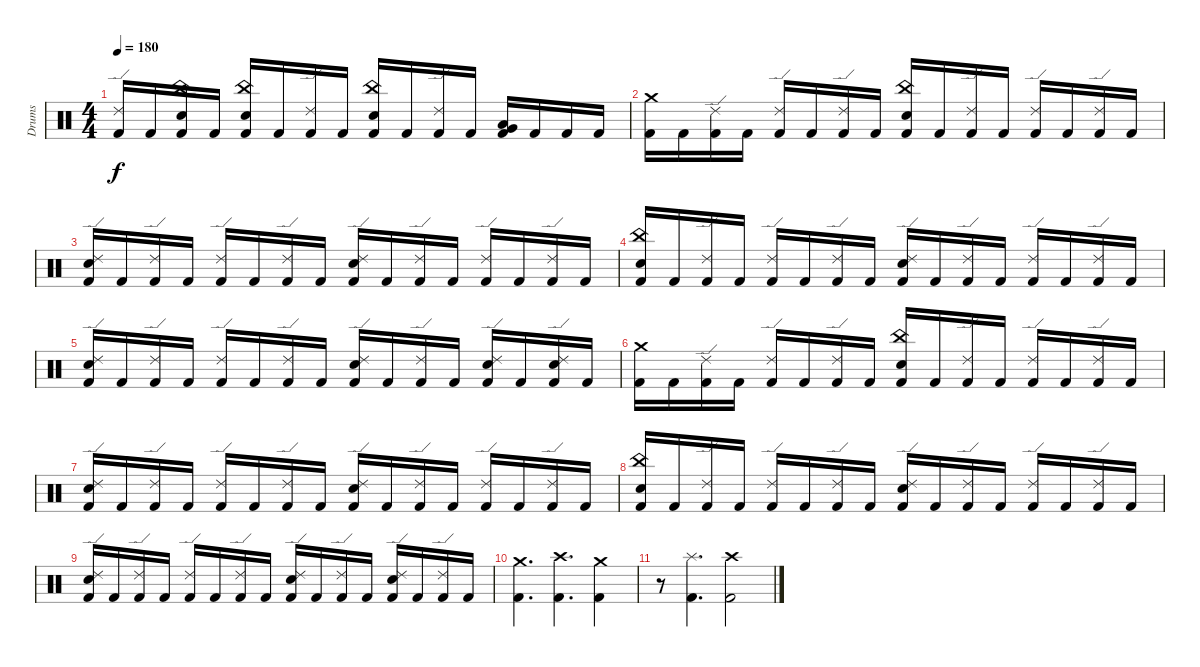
\track ("Drums" "Drums") {instrument percussion}
\staff {score}
\articulation defaults
\ts (4 4)
\tempo 180
\clef neutral
\ks c
("Ride (edge) 2" "Kick (hit) 2").16{dy f} "Kick (hit) 2".16 ("China (hit)" "Snare (hit) 2" "Kick (hit) 2").16 "Kick (hit) 2".16 ("China (hit)" "Snare (hit) 2" "Kick (hit) 2").16 "Kick (hit) 2".16 ("Ride (edge) 2" "Kick (hit) 2").16 "Kick (hit) 2".16 ("China (hit)" "Snare (hit) 2" "Kick (hit) 2").16 "Kick (hit) 2".16 ("Ride (edge) 2" "Kick (hit) 2").16 "Kick (hit) 2".16 ("Low Floor Tom (hit)" "Very Low Tom (hit)" "Kick (hit) 2").16 "Kick (hit) 2".16 "Kick (hit) 2".16 "Kick (hit) 2".16 |
("Crash medium (hit)" "Kick (hit) 2").16 "Kick (hit) 2".16 ("Ride (edge) 2" "Kick (hit) 2").16 "Kick (hit) 2".16 ("Ride (edge) 2" "Kick (hit) 2").16 "Kick (hit) 2".16 ("Ride (edge) 2" "Kick (hit) 2").16 "Kick (hit) 2".16 ("China (hit)" "Snare (hit) 2" "Kick (hit) 2").16 "Kick (hit) 2".16 ("Ride (edge) 2" "Kick (hit) 2").16 "Kick (hit) 2".16 ("Ride (edge) 2" "Kick (hit) 2").16 "Kick (hit) 2".16 ("Ride (edge) 2" "Kick (hit) 2").16 "Kick (hit) 2".16 |
("Ride (edge) 2" "Snare (hit) 2" "Kick (hit) 2").16 "Kick (hit) 2".16 ("Ride (edge) 2" "Kick (hit) 2").16 "Kick (hit) 2".16 ("Ride (edge) 2" "Kick (hit) 2").16 "Kick (hit) 2".16 ("Ride (edge) 2" "Kick (hit) 2").16 "Kick (hit) 2".16 ("Ride (edge) 2" "Snare (hit) 2" "Kick (hit) 2").16 "Kick (hit) 2".16 ("Ride (edge) 2" "Kick (hit) 2").16 "Kick (hit) 2".16 ("Ride (edge) 2" "Kick (hit) 2").16 "Kick (hit) 2".16 ("Ride (edge) 2" "Kick (hit) 2").16 "Kick (hit) 2".16 |
("China (hit)" "Snare (hit) 2" "Kick (hit) 2").16 "Kick (hit) 2".16 ("Ride (edge) 2" "Kick (hit) 2").16 "Kick (hit) 2".16 ("Ride (edge) 2" "Kick (hit) 2").16 "Kick (hit) 2".16 ("Ride (edge) 2" "Kick (hit) 2").16 "Kick (hit) 2".16 ("Ride (edge) 2" "Snare (hit) 2" "Kick (hit) 2").16 "Kick (hit) 2".16 ("Ride (edge) 2" "Kick (hit) 2").16 "Kick (hit) 2".16 ("Ride (edge) 2" "Kick (hit) 2").16 "Kick (hit) 2".16 ("Ride (edge) 2" "Kick (hit) 2").16 "Kick (hit) 2".16 |
("Ride (edge) 2" "Snare (hit) 2" "Kick (hit) 2").16 "Kick (hit) 2".16 ("Ride (edge) 2" "Kick (hit) 2").16 "Kick (hit) 2".16 ("Ride (edge) 2" "Kick (hit) 2").16 "Kick (hit) 2".16 ("Ride (edge) 2" "Kick (hit) 2").16 "Kick (hit) 2".16 ("Ride (edge) 2" "Snare (hit) 2" "Kick (hit) 2").16 "Kick (hit) 2".16 ("Ride (edge) 2" "Kick (hit) 2").16 "Kick (hit) 2".16 ("Ride (edge) 2" "Snare (hit) 2" "Kick (hit) 2").16 "Kick (hit) 2".16 ("Ride (edge) 2" "Snare (hit) 2" "Kick (hit) 2").16 "Kick (hit) 2".16 |
("Crash medium (hit)" "Kick (hit) 2").16 "Kick (hit) 2".16 ("Ride (edge) 2" "Kick (hit) 2").16 "Kick (hit) 2".16 ("Ride (edge) 2" "Kick (hit) 2").16 "Kick (hit) 2".16 ("Ride (edge) 2" "Kick (hit) 2").16 "Kick (hit) 2".16 ("China (hit)" "Snare (hit) 2" "Kick (hit) 2").16 "Kick (hit) 2".16 ("Ride (edge) 2" "Kick (hit) 2").16 "Kick (hit) 2".16 ("Ride (edge) 2" "Kick (hit) 2").16 "Kick (hit) 2".16 ("Ride (edge) 2" "Kick (hit) 2").16 "Kick (hit) 2".16 |
("Ride (edge) 2" "Snare (hit) 2" "Kick (hit) 2").16 "Kick (hit) 2".16 ("Ride (edge) 2" "Kick (hit) 2").16 "Kick (hit) 2".16 ("Ride (edge) 2" "Kick (hit) 2").16 "Kick (hit) 2".16 ("Ride (edge) 2" "Kick (hit) 2").16 "Kick (hit) 2".16 ("Ride (edge) 2" "Snare (hit) 2" "Kick (hit) 2").16 "Kick (hit) 2".16 ("Ride (edge) 2" "Kick (hit) 2").16 "Kick (hit) 2".16 ("Ride (edge) 2" "Kick (hit) 2").16 "Kick (hit) 2".16 ("Ride (edge) 2" "Kick (hit) 2").16 "Kick (hit) 2".16 |
("China (hit)" "Snare (hit) 2" "Kick (hit) 2").16 "Kick (hit) 2".16 ("Ride (edge) 2" "Kick (hit) 2").16 "Kick (hit) 2".16 ("Ride (edge) 2" "Kick (hit) 2").16 "Kick (hit) 2".16 ("Ride (edge) 2" "Kick (hit) 2").16 "Kick (hit) 2".16 ("Ride (edge) 2" "Snare (hit) 2" "Kick (hit) 2").16 "Kick (hit) 2".16 ("Ride (edge) 2" "Kick (hit) 2").16 "Kick (hit) 2".16 ("Ride (edge) 2" "Kick (hit) 2").16 "Kick (hit) 2".16 ("Ride (edge) 2" "Kick (hit) 2").16 "Kick (hit) 2".16 |
("Ride (edge) 2" "Snare (hit) 2" "Kick (hit) 2").16 "Kick (hit) 2".16 ("Ride (edge) 2" "Kick (hit) 2").16 "Kick (hit) 2".16 ("Ride (edge) 2" "Kick (hit) 2").16 "Kick (hit) 2".16 ("Ride (edge) 2" "Kick (hit) 2").16 "Kick (hit) 2".16 ("Ride (edge) 2" "Snare (hit) 2" "Kick (hit) 2").16 "Kick (hit) 2".16 ("Ride (edge) 2" "Kick (hit) 2").16 "Kick (hit) 2".16 ("Ride (edge) 2" "Snare (hit) 2" "Kick (hit) 2").16 "Kick (hit) 2".16 ("Ride (edge) 2" "Kick (hit) 2").16 "Kick (hit) 2".16 |
("Crash medium (hit)" "Kick (hit) 2").4{d} ("Crash high (hit)" "Kick (hit) 2").4{d} ("Crash medium (hit)" "Kick (hit) 2").4 |
r.8 ("Splash (hit)" "Kick (hit) 2").4{d} ("Crash high (hit)" "Kick (hit) 2").2
